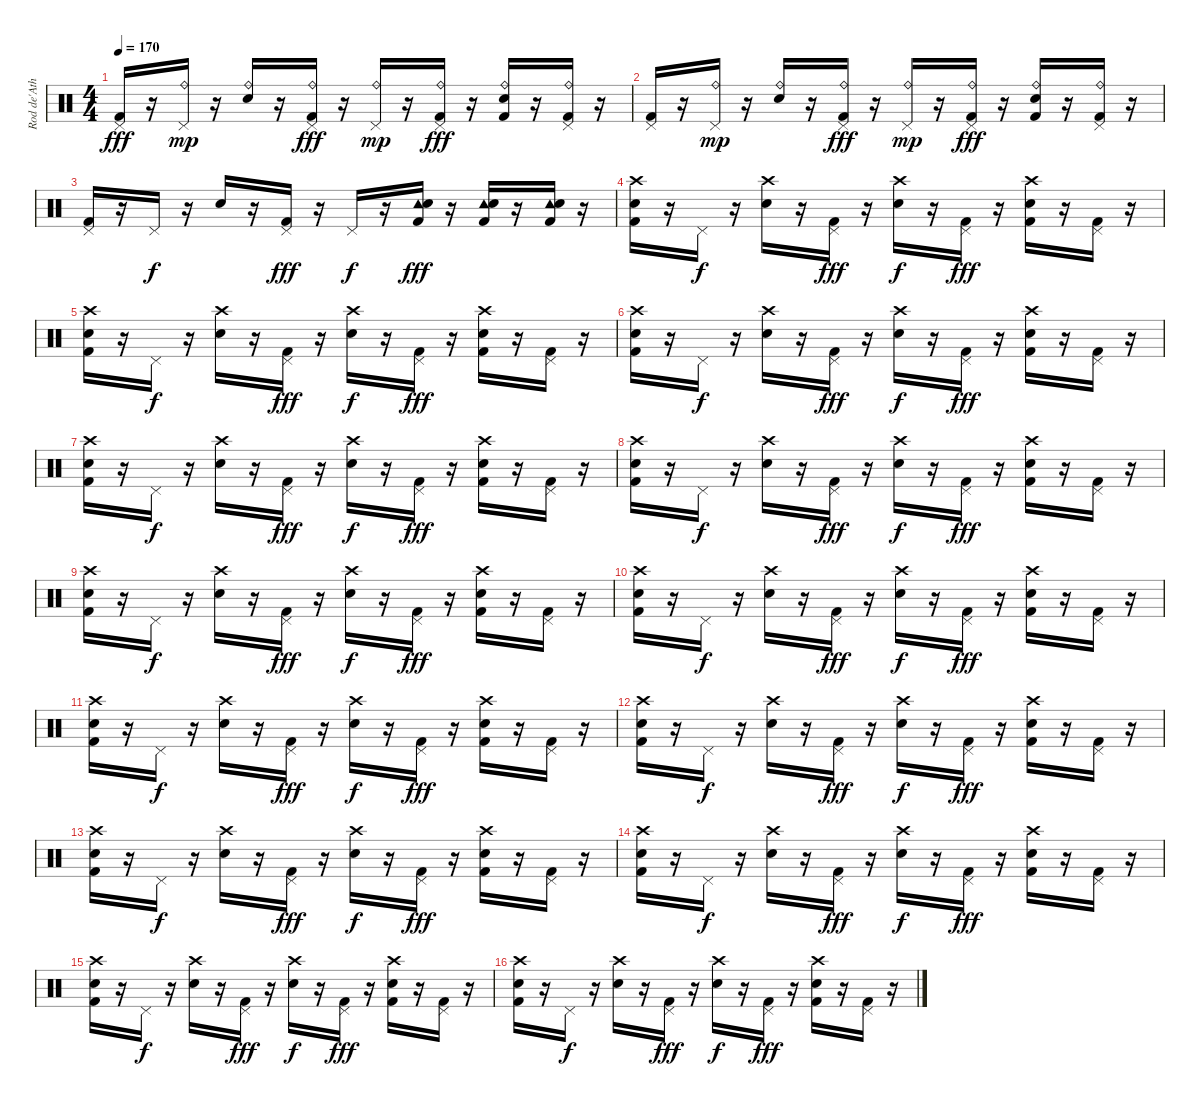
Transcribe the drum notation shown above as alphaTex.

\track ("Rod de'Ath" "Rod de'Ath") {instrument percussion}
\staff {score}
\articulation defaults
\ts (4 4)
\tempo 170
\clef neutral
\ks c
("Pedal Hi-Hat (hit)" "Kick (hit) 2").16{dy fff} r.16 ("Ride (bell)" "Pedal Hi-Hat (hit)").16{dy mp} r.16 ("Ride (bell)" "Snare (hit) 2").16 r.16 ("Ride (bell)" "Pedal Hi-Hat (hit)" "Kick (hit) 2").16{dy fff} r.16 ("Ride (bell)" "Pedal Hi-Hat (hit)").16{dy mp} r.16 ("Ride (bell)" "Pedal Hi-Hat (hit)" "Kick (hit) 2").16{dy fff} r.16 ("Ride (bell)" "Electric Snare (hit)" "Kick (hit) 2").16 r.16 ("Ride (bell)" "Pedal Hi-Hat (hit)" "Kick (hit) 2").16 r.16 |
("Pedal Hi-Hat (hit)" "Kick (hit) 2").16 r.16 ("Ride (bell)" "Pedal Hi-Hat (hit)").16{dy mp} r.16 ("Ride (bell)" "Snare (hit) 2").16 r.16 ("Ride (bell)" "Pedal Hi-Hat (hit)" "Kick (hit) 2").16{dy fff} r.16 ("Ride (bell)" "Pedal Hi-Hat (hit)").16{dy mp} r.16 ("Ride (bell)" "Pedal Hi-Hat (hit)" "Kick (hit) 2").16{dy fff} r.16 ("Ride (bell)" "Electric Snare (hit)" "Kick (hit) 2").16 r.16 ("Ride (bell)" "Pedal Hi-Hat (hit)" "Kick (hit) 2").16 r.16 |
("Pedal Hi-Hat (hit)" "Kick (hit) 2").16 r.16 "Pedal Hi-Hat (hit)".16{dy f} r.16 "Snare (hit) 2".16 r.16 ("Pedal Hi-Hat (hit)" "Kick (hit) 2").16{dy fff} r.16 "Pedal Hi-Hat (hit)".16{dy f} r.16 ("Tambourine (hit)" "Electric Snare (hit)" "Kick (hit) 2").16{dy fff} r.16 ("Tambourine (hit)" "Electric Snare (hit)" "Kick (hit) 2").16 r.16 ("Tambourine (hit)" "Electric Snare (hit)" "Kick (hit) 2").16 r.16 |
("Crash high (hit)" "Electric Snare (hit)" "Kick (hit) 2").16 r.16 "Pedal Hi-Hat (hit)".16{dy f} r.16 ("Crash high (hit)" "Electric Snare (hit)").16 r.16 ("Pedal Hi-Hat (hit)" "Kick (hit) 2").16{dy fff} r.16 ("Crash high (hit)" "Electric Snare (hit)").16{dy f} r.16 ("Pedal Hi-Hat (hit)" "Kick (hit) 2").16{dy fff} r.16 ("Crash high (hit)" "Electric Snare (hit)" "Kick (hit) 2").16 r.16 ("Pedal Hi-Hat (hit)" "Kick (hit) 2").16 r.16 |
("Crash high (hit)" "Electric Snare (hit)" "Kick (hit) 2").16 r.16 "Pedal Hi-Hat (hit)".16{dy f} r.16 ("Crash high (hit)" "Electric Snare (hit)").16 r.16 ("Pedal Hi-Hat (hit)" "Kick (hit) 2").16{dy fff} r.16 ("Crash high (hit)" "Electric Snare (hit)").16{dy f} r.16 ("Pedal Hi-Hat (hit)" "Kick (hit) 2").16{dy fff} r.16 ("Crash high (hit)" "Electric Snare (hit)" "Kick (hit) 2").16 r.16 ("Pedal Hi-Hat (hit)" "Kick (hit) 2").16 r.16 |
("Crash high (hit)" "Electric Snare (hit)" "Kick (hit) 2").16 r.16 "Pedal Hi-Hat (hit)".16{dy f} r.16 ("Crash high (hit)" "Electric Snare (hit)").16 r.16 ("Pedal Hi-Hat (hit)" "Kick (hit) 2").16{dy fff} r.16 ("Crash high (hit)" "Electric Snare (hit)").16{dy f} r.16 ("Pedal Hi-Hat (hit)" "Kick (hit) 2").16{dy fff} r.16 ("Crash high (hit)" "Electric Snare (hit)" "Kick (hit) 2").16 r.16 ("Pedal Hi-Hat (hit)" "Kick (hit) 2").16 r.16 |
("Crash high (hit)" "Electric Snare (hit)" "Kick (hit) 2").16 r.16 "Pedal Hi-Hat (hit)".16{dy f} r.16 ("Crash high (hit)" "Electric Snare (hit)").16 r.16 ("Pedal Hi-Hat (hit)" "Kick (hit) 2").16{dy fff} r.16 ("Crash high (hit)" "Electric Snare (hit)").16{dy f} r.16 ("Pedal Hi-Hat (hit)" "Kick (hit) 2").16{dy fff} r.16 ("Crash high (hit)" "Electric Snare (hit)" "Kick (hit) 2").16 r.16 ("Pedal Hi-Hat (hit)" "Kick (hit) 2").16 r.16 |
("Crash high (hit)" "Electric Snare (hit)" "Kick (hit) 2").16 r.16 "Pedal Hi-Hat (hit)".16{dy f} r.16 ("Crash high (hit)" "Electric Snare (hit)").16 r.16 ("Pedal Hi-Hat (hit)" "Kick (hit) 2").16{dy fff} r.16 ("Crash high (hit)" "Electric Snare (hit)").16{dy f} r.16 ("Pedal Hi-Hat (hit)" "Kick (hit) 2").16{dy fff} r.16 ("Crash high (hit)" "Electric Snare (hit)" "Kick (hit) 2").16 r.16 ("Pedal Hi-Hat (hit)" "Kick (hit) 2").16 r.16 |
("Crash high (hit)" "Electric Snare (hit)" "Kick (hit) 2").16 r.16 "Pedal Hi-Hat (hit)".16{dy f} r.16 ("Crash high (hit)" "Electric Snare (hit)").16 r.16 ("Pedal Hi-Hat (hit)" "Kick (hit) 2").16{dy fff} r.16 ("Crash high (hit)" "Electric Snare (hit)").16{dy f} r.16 ("Pedal Hi-Hat (hit)" "Kick (hit) 2").16{dy fff} r.16 ("Crash high (hit)" "Electric Snare (hit)" "Kick (hit) 2").16 r.16 ("Pedal Hi-Hat (hit)" "Kick (hit) 2").16 r.16 |
("Crash high (hit)" "Electric Snare (hit)" "Kick (hit) 2").16 r.16 "Pedal Hi-Hat (hit)".16{dy f} r.16 ("Crash high (hit)" "Electric Snare (hit)").16 r.16 ("Pedal Hi-Hat (hit)" "Kick (hit) 2").16{dy fff} r.16 ("Crash high (hit)" "Electric Snare (hit)").16{dy f} r.16 ("Pedal Hi-Hat (hit)" "Kick (hit) 2").16{dy fff} r.16 ("Crash high (hit)" "Electric Snare (hit)" "Kick (hit) 2").16 r.16 ("Pedal Hi-Hat (hit)" "Kick (hit) 2").16 r.16 |
("Crash high (hit)" "Electric Snare (hit)" "Kick (hit) 2").16 r.16 "Pedal Hi-Hat (hit)".16{dy f} r.16 ("Crash high (hit)" "Electric Snare (hit)").16 r.16 ("Pedal Hi-Hat (hit)" "Kick (hit) 2").16{dy fff} r.16 ("Crash high (hit)" "Electric Snare (hit)").16{dy f} r.16 ("Pedal Hi-Hat (hit)" "Kick (hit) 2").16{dy fff} r.16 ("Crash high (hit)" "Electric Snare (hit)" "Kick (hit) 2").16 r.16 ("Pedal Hi-Hat (hit)" "Kick (hit) 2").16 r.16 |
("Crash high (hit)" "Electric Snare (hit)" "Kick (hit) 2").16 r.16 "Pedal Hi-Hat (hit)".16{dy f} r.16 ("Crash high (hit)" "Electric Snare (hit)").16 r.16 ("Pedal Hi-Hat (hit)" "Kick (hit) 2").16{dy fff} r.16 ("Crash high (hit)" "Electric Snare (hit)").16{dy f} r.16 ("Pedal Hi-Hat (hit)" "Kick (hit) 2").16{dy fff} r.16 ("Crash high (hit)" "Electric Snare (hit)" "Kick (hit) 2").16 r.16 ("Pedal Hi-Hat (hit)" "Kick (hit) 2").16 r.16 |
("Crash high (hit)" "Electric Snare (hit)" "Kick (hit) 2").16 r.16 "Pedal Hi-Hat (hit)".16{dy f} r.16 ("Crash high (hit)" "Electric Snare (hit)").16 r.16 ("Pedal Hi-Hat (hit)" "Kick (hit) 2").16{dy fff} r.16 ("Crash high (hit)" "Electric Snare (hit)").16{dy f} r.16 ("Pedal Hi-Hat (hit)" "Kick (hit) 2").16{dy fff} r.16 ("Crash high (hit)" "Electric Snare (hit)" "Kick (hit) 2").16 r.16 ("Pedal Hi-Hat (hit)" "Kick (hit) 2").16 r.16 |
("Crash high (hit)" "Electric Snare (hit)" "Kick (hit) 2").16 r.16 "Pedal Hi-Hat (hit)".16{dy f} r.16 ("Crash high (hit)" "Electric Snare (hit)").16 r.16 ("Pedal Hi-Hat (hit)" "Kick (hit) 2").16{dy fff} r.16 ("Crash high (hit)" "Electric Snare (hit)").16{dy f} r.16 ("Pedal Hi-Hat (hit)" "Kick (hit) 2").16{dy fff} r.16 ("Crash high (hit)" "Electric Snare (hit)" "Kick (hit) 2").16 r.16 ("Pedal Hi-Hat (hit)" "Kick (hit) 2").16 r.16 |
("Crash high (hit)" "Electric Snare (hit)" "Kick (hit) 2").16 r.16 "Pedal Hi-Hat (hit)".16{dy f} r.16 ("Crash high (hit)" "Electric Snare (hit)").16 r.16 ("Pedal Hi-Hat (hit)" "Kick (hit) 2").16{dy fff} r.16 ("Crash high (hit)" "Electric Snare (hit)").16{dy f} r.16 ("Pedal Hi-Hat (hit)" "Kick (hit) 2").16{dy fff} r.16 ("Crash high (hit)" "Electric Snare (hit)" "Kick (hit) 2").16 r.16 ("Pedal Hi-Hat (hit)" "Kick (hit) 2").16 r.16 |
("Crash high (hit)" "Electric Snare (hit)" "Kick (hit) 2").16 r.16 "Pedal Hi-Hat (hit)".16{dy f} r.16 ("Crash high (hit)" "Electric Snare (hit)").16 r.16 ("Pedal Hi-Hat (hit)" "Kick (hit) 2").16{dy fff} r.16 ("Crash high (hit)" "Electric Snare (hit)").16{dy f} r.16 ("Pedal Hi-Hat (hit)" "Kick (hit) 2").16{dy fff} r.16 ("Crash high (hit)" "Electric Snare (hit)" "Kick (hit) 2").16 r.16 ("Pedal Hi-Hat (hit)" "Kick (hit) 2").16 r.16
